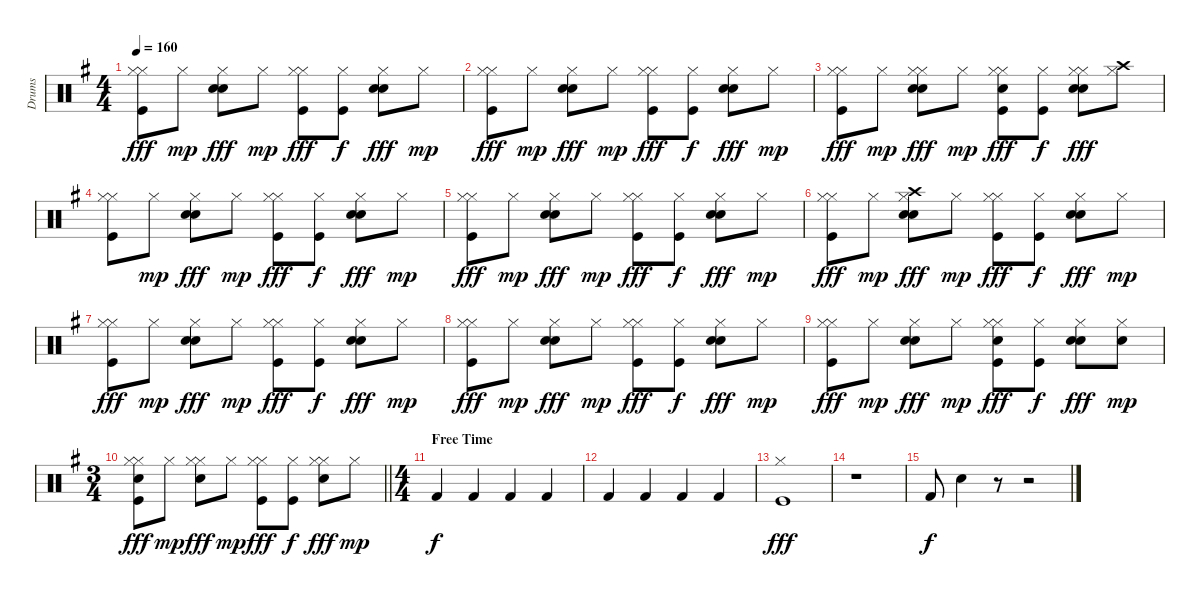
\track ("Drums" "Drums") {instrument percussion}
\staff {score}
\articulation defaults
\ts (4 4)
\tempo 160
\clef neutral
\ks g
("Hi-Hat (closed)" "Kick (hit)" "Hi-Hat (closed)").8{dy fff} "Hi-Hat (closed)".8{dy mp} ("Snare (hit) 2" "Hi-Hat (closed)" "Electric Snare (hit)").8{dy fff} "Hi-Hat (closed)".8{dy mp} ("Hi-Hat (closed)" "Kick (hit)" "Hi-Hat (closed)").8{dy fff} ("Hi-Hat (closed)" "Kick (hit)").8{dy f} ("Snare (hit) 2" "Hi-Hat (closed)" "Electric Snare (hit)").8{dy fff} "Hi-Hat (closed)".8{dy mp} |
("Hi-Hat (closed)" "Kick (hit)" "Hi-Hat (closed)").8{dy fff} "Hi-Hat (closed)".8{dy mp} ("Snare (hit) 2" "Hi-Hat (closed)" "Electric Snare (hit)").8{dy fff} "Hi-Hat (closed)".8{dy mp} ("Hi-Hat (closed)" "Kick (hit)" "Hi-Hat (closed)").8{dy fff} ("Hi-Hat (closed)" "Kick (hit)").8{dy f} ("Snare (hit) 2" "Hi-Hat (closed)" "Electric Snare (hit)").8{dy fff} "Hi-Hat (closed)".8{dy mp} |
("Hi-Hat (closed)" "Kick (hit)" "Hi-Hat (closed)").8{dy fff} "Hi-Hat (closed)".8{dy mp} ("Snare (hit) 2" "Hi-Hat (closed)" "Hi-Hat (closed)" "Electric Snare (hit)").8{dy fff} "Hi-Hat (closed)".8{dy mp} ("Hi-Hat (closed)" "Kick (hit)" "Hi-Hat (closed)" "Electric Snare (hit)").8{dy fff} ("Hi-Hat (closed)" "Kick (hit)").8{dy f} ("Snare (hit) 2" "Hi-Hat (closed)" "Hi-Hat (closed)" "Electric Snare (hit)").8{dy fff} ("Hi-Hat (closed)" "Crash high (hit)").8 |
("Hi-Hat (closed)" "Kick (hit)" "Hi-Hat (closed)").8 "Hi-Hat (closed)".8{dy mp} ("Snare (hit) 2" "Hi-Hat (closed)" "Electric Snare (hit)").8{dy fff} "Hi-Hat (closed)".8{dy mp} ("Hi-Hat (closed)" "Kick (hit)" "Hi-Hat (closed)").8{dy fff} ("Hi-Hat (closed)" "Kick (hit)").8{dy f} ("Snare (hit) 2" "Hi-Hat (closed)" "Electric Snare (hit)").8{dy fff} "Hi-Hat (closed)".8{dy mp} |
("Hi-Hat (closed)" "Kick (hit)" "Hi-Hat (closed)").8{dy fff} "Hi-Hat (closed)".8{dy mp} ("Snare (hit) 2" "Hi-Hat (closed)" "Electric Snare (hit)").8{dy fff} "Hi-Hat (closed)".8{dy mp} ("Hi-Hat (closed)" "Kick (hit)" "Hi-Hat (closed)").8{dy fff} ("Hi-Hat (closed)" "Kick (hit)").8{dy f} ("Snare (hit) 2" "Hi-Hat (closed)" "Electric Snare (hit)").8{dy fff} "Hi-Hat (closed)".8{dy mp} |
("Hi-Hat (closed)" "Kick (hit)" "Hi-Hat (closed)").8{dy fff} "Hi-Hat (closed)".8{dy mp} ("Snare (hit) 2" "Hi-Hat (closed)" "Electric Snare (hit)" "Crash high (hit)").8{dy fff} "Hi-Hat (closed)".8{dy mp} ("Hi-Hat (closed)" "Kick (hit)" "Hi-Hat (closed)").8{dy fff} ("Hi-Hat (closed)" "Kick (hit)").8{dy f} ("Snare (hit) 2" "Hi-Hat (closed)" "Electric Snare (hit)").8{dy fff} "Hi-Hat (closed)".8{dy mp} |
("Hi-Hat (closed)" "Kick (hit)" "Hi-Hat (closed)").8{dy fff} "Hi-Hat (closed)".8{dy mp} ("Snare (hit) 2" "Hi-Hat (closed)" "Electric Snare (hit)").8{dy fff} "Hi-Hat (closed)".8{dy mp} ("Hi-Hat (closed)" "Kick (hit)" "Hi-Hat (closed)").8{dy fff} ("Hi-Hat (closed)" "Kick (hit)").8{dy f} ("Snare (hit) 2" "Hi-Hat (closed)" "Electric Snare (hit)").8{dy fff} "Hi-Hat (closed)".8{dy mp} |
("Hi-Hat (closed)" "Kick (hit)" "Hi-Hat (closed)").8{dy fff} "Hi-Hat (closed)".8{dy mp} ("Snare (hit) 2" "Hi-Hat (closed)" "Electric Snare (hit)").8{dy fff} "Hi-Hat (closed)".8{dy mp} ("Hi-Hat (closed)" "Kick (hit)" "Hi-Hat (closed)").8{dy fff} ("Hi-Hat (closed)" "Kick (hit)").8{dy f} ("Snare (hit) 2" "Hi-Hat (closed)" "Electric Snare (hit)").8{dy fff} "Hi-Hat (closed)".8{dy mp} |
("Hi-Hat (closed)" "Kick (hit)" "Hi-Hat (closed)").8{dy fff} "Hi-Hat (closed)".8{dy mp} ("Snare (hit) 2" "Hi-Hat (closed)" "Electric Snare (hit)").8{dy fff} "Hi-Hat (closed)".8{dy mp} ("Hi-Hat (closed)" "Kick (hit)" "Hi-Hat (closed)" "Electric Snare (hit)").8{dy fff} ("Hi-Hat (closed)" "Kick (hit)").8{dy f} ("Snare (hit) 2" "Hi-Hat (closed)" "Electric Snare (hit)").8{dy fff} ("Hi-Hat (closed)" "Electric Snare (hit)").8{dy mp} |
\ts (3 4)
\barLineRight lightlight
("Hi-Hat (closed)" "Kick (hit)" "Hi-Hat (closed)" "Electric Snare (hit)").8{dy fff} "Hi-Hat (closed)".8{dy mp} ("Snare (hit) 2" "Hi-Hat (closed)" "Hi-Hat (closed)").8{dy fff} "Hi-Hat (closed)".8{dy mp} ("Hi-Hat (closed)" "Kick (hit)" "Hi-Hat (closed)").8{dy fff} ("Hi-Hat (closed)" "Kick (hit)").8{dy f} ("Snare (hit) 2" "Hi-Hat (closed)" "Hi-Hat (closed)").8{dy fff} "Hi-Hat (closed)".8{dy mp} |
\ts (4 4)
\section ("" "Free Time")
"Kick (hit) 2".4{dy f} "Kick (hit) 2".4 "Kick (hit) 2".4 "Kick (hit) 2".4 |
"Kick (hit) 2".4 "Kick (hit) 2".4 "Kick (hit) 2".4 "Kick (hit) 2".4 |
("Hi-Hat (closed)" "Kick (hit)").1{dy fff} |
r.1 |
"Kick (hit) 2".8{dy f} "Electric Snare (hit)".4 r.8 r.2
